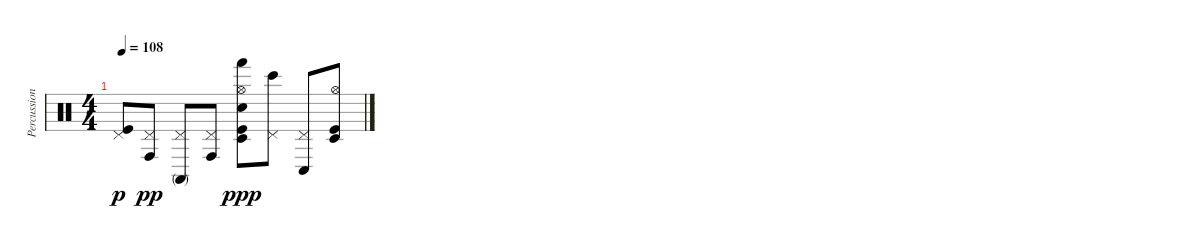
\track ("Percussions" "Percussion") {instrument percussion}
\staff {score}
\articulation defaults
\ts (4 4)
\tempo 108
\clef neutral
\ks c
("Pedal Hi-Hat (hit)" "Kick (hit)").8{dy p} ("Pedal Hi-Hat (hit)" "Conga high (hit)").8{dy pp} ("Pedal Hi-Hat (hit)" "Conga high (mute)").8 ("Pedal Hi-Hat (hit)" "Conga high (hit)").8 ("Hi-Hat (open)" "Hand (hit)" "Kick (hit)" "Snare (hit) 2" "Timbale low (hit)").8{dy ppp} ("Pedal Hi-Hat (hit)" "Bongo High (hit)").8 ("Pedal Hi-Hat (hit)" "Conga low (hit)").8 ("Hi-Hat (open)" "Kick (hit)" "Timbale low (hit)").8
